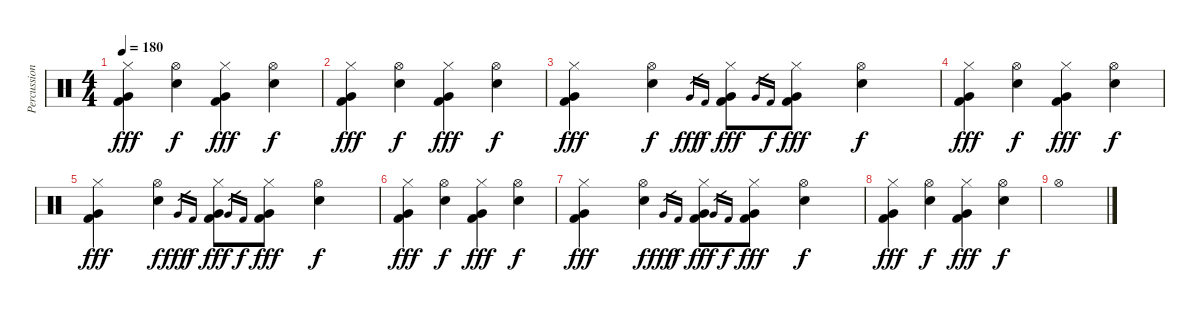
\track ("Percussion" "Percussion") {instrument percussion}
\staff {score}
\articulation defaults
\ts (4 4)
\tempo 180
\clef neutral
\ks c
("Hi-Hat (closed)" "Very Low Tom (hit)" "Kick (hit) 2").4{dy fff} ("Hi-Hat (open)" "Electric Snare (hit)").4{dy f} ("Hi-Hat (closed)" "Very Low Tom (hit)" "Kick (hit) 2").4{dy fff} ("Hi-Hat (open)" "Electric Snare (hit)").4{dy f} |
("Hi-Hat (closed)" "Very Low Tom (hit)" "Kick (hit) 2").4{dy fff} ("Hi-Hat (open)" "Electric Snare (hit)").4{dy f} ("Hi-Hat (closed)" "Very Low Tom (hit)" "Kick (hit) 2").4{dy fff} ("Hi-Hat (open)" "Electric Snare (hit)").4{dy f} |
("Hi-Hat (closed)" "Very Low Tom (hit)" "Kick (hit) 2").4{dy fff} ("Hi-Hat (open)" "Electric Snare (hit)").4{dy f} "Very Low Tom (hit)".16{gr dy fff} "Kick (hit) 2".16{gr dy f} ("Hi-Hat (closed)" "Very Low Tom (hit)" "Kick (hit) 2").8{dy fff} "Very Low Tom (hit)".16{gr} "Kick (hit) 2".16{gr dy f} ("Hi-Hat (closed)" "Very Low Tom (hit)" "Kick (hit) 2").8{dy fff} ("Hi-Hat (open)" "Electric Snare (hit)").4{dy f} |
("Hi-Hat (closed)" "Very Low Tom (hit)" "Kick (hit) 2").4{dy fff} ("Hi-Hat (open)" "Electric Snare (hit)").4{dy f} ("Hi-Hat (closed)" "Very Low Tom (hit)" "Kick (hit) 2").4{dy fff} ("Hi-Hat (open)" "Electric Snare (hit)").4{dy f} |
("Hi-Hat (closed)" "Very Low Tom (hit)" "Kick (hit) 2").4{dy fff} ("Hi-Hat (open)" "Electric Snare (hit)").4{dy f} "Very Low Tom (hit)".16{gr dy fff} "Kick (hit) 2".16{gr dy f} ("Hi-Hat (closed)" "Very Low Tom (hit)" "Kick (hit) 2").8{dy fff} "Very Low Tom (hit)".16{gr} "Kick (hit) 2".16{gr dy f} ("Hi-Hat (closed)" "Very Low Tom (hit)" "Kick (hit) 2").8{dy fff} ("Hi-Hat (open)" "Electric Snare (hit)").4{dy f} |
("Hi-Hat (closed)" "Very Low Tom (hit)" "Kick (hit) 2").4{dy fff} ("Hi-Hat (open)" "Electric Snare (hit)").4{dy f} ("Hi-Hat (closed)" "Very Low Tom (hit)" "Kick (hit) 2").4{dy fff} ("Hi-Hat (open)" "Electric Snare (hit)").4{dy f} |
("Hi-Hat (closed)" "Very Low Tom (hit)" "Kick (hit) 2").4{dy fff} ("Hi-Hat (open)" "Electric Snare (hit)").4{dy f} "Very Low Tom (hit)".16{gr dy fff} "Kick (hit) 2".16{gr dy f} ("Hi-Hat (closed)" "Very Low Tom (hit)" "Kick (hit) 2").8{dy fff} "Very Low Tom (hit)".16{gr} "Kick (hit) 2".16{gr dy f} ("Hi-Hat (closed)" "Very Low Tom (hit)" "Kick (hit) 2").8{dy fff} ("Hi-Hat (open)" "Electric Snare (hit)").4{dy f} |
("Hi-Hat (closed)" "Very Low Tom (hit)" "Kick (hit) 2").4{dy fff} ("Hi-Hat (open)" "Electric Snare (hit)").4{dy f} ("Hi-Hat (closed)" "Very Low Tom (hit)" "Kick (hit) 2").4{dy fff} ("Hi-Hat (open)" "Electric Snare (hit)").4{dy f} |
"Hi-Hat (open)".1
